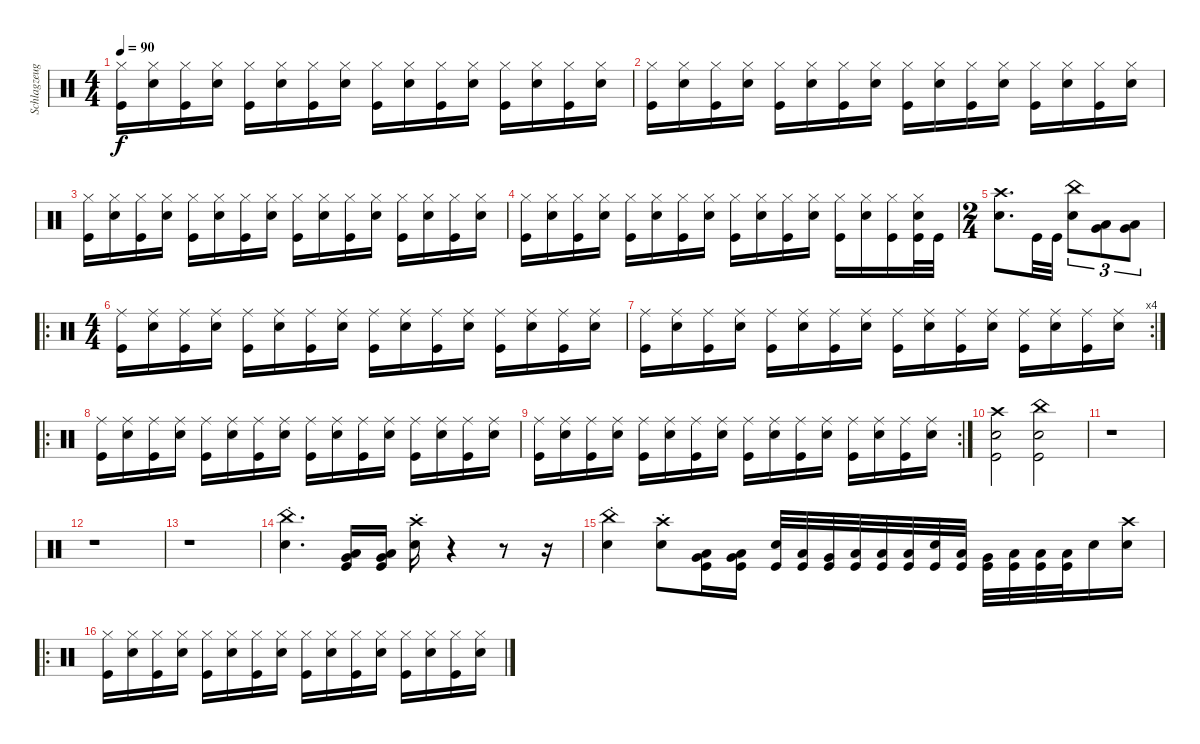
\track ("Schlagzeug" "Schlagzeug") {instrument percussion}
\staff {score}
\articulation defaults
\ts (4 4)
\tempo 90
\clef neutral
\ks c
("Hi-Hat (closed)" "Kick (hit)").16{dy f} ("Hi-Hat (closed)" "Snare (hit) 2").16 ("Hi-Hat (closed)" "Kick (hit)").16 ("Hi-Hat (closed)" "Snare (hit) 2").16 ("Hi-Hat (closed)" "Kick (hit)").16 ("Hi-Hat (closed)" "Snare (hit) 2").16 ("Hi-Hat (closed)" "Kick (hit)").16 ("Hi-Hat (closed)" "Snare (hit) 2").16 ("Hi-Hat (closed)" "Kick (hit)").16 ("Hi-Hat (closed)" "Snare (hit) 2").16 ("Hi-Hat (closed)" "Kick (hit)").16 ("Hi-Hat (closed)" "Snare (hit) 2").16 ("Hi-Hat (closed)" "Kick (hit)").16 ("Hi-Hat (closed)" "Snare (hit) 2").16 ("Hi-Hat (closed)" "Kick (hit)").16 ("Hi-Hat (closed)" "Snare (hit) 2").16 |
("Hi-Hat (closed)" "Kick (hit)").16 ("Hi-Hat (closed)" "Snare (hit) 2").16 ("Hi-Hat (closed)" "Kick (hit)").16 ("Hi-Hat (closed)" "Snare (hit) 2").16 ("Hi-Hat (closed)" "Kick (hit)").16 ("Hi-Hat (closed)" "Snare (hit) 2").16 ("Hi-Hat (closed)" "Kick (hit)").16 ("Hi-Hat (closed)" "Snare (hit) 2").16 ("Hi-Hat (closed)" "Kick (hit)").16 ("Hi-Hat (closed)" "Snare (hit) 2").16 ("Hi-Hat (closed)" "Kick (hit)").16 ("Hi-Hat (closed)" "Snare (hit) 2").16 ("Hi-Hat (closed)" "Kick (hit)").16 ("Hi-Hat (closed)" "Snare (hit) 2").16 ("Hi-Hat (closed)" "Kick (hit)").16 ("Hi-Hat (closed)" "Snare (hit) 2").16 |
("Hi-Hat (closed)" "Kick (hit)").16 ("Hi-Hat (closed)" "Snare (hit) 2").16 ("Hi-Hat (closed)" "Kick (hit)").16 ("Hi-Hat (closed)" "Snare (hit) 2").16 ("Hi-Hat (closed)" "Kick (hit)").16 ("Hi-Hat (closed)" "Snare (hit) 2").16 ("Hi-Hat (closed)" "Kick (hit)").16 ("Hi-Hat (closed)" "Snare (hit) 2").16 ("Hi-Hat (closed)" "Kick (hit)").16 ("Hi-Hat (closed)" "Snare (hit) 2").16 ("Hi-Hat (closed)" "Kick (hit)").16 ("Hi-Hat (closed)" "Snare (hit) 2").16 ("Hi-Hat (closed)" "Kick (hit)").16 ("Hi-Hat (closed)" "Snare (hit) 2").16 ("Hi-Hat (closed)" "Kick (hit)").16 ("Hi-Hat (closed)" "Snare (hit) 2").16 |
("Hi-Hat (closed)" "Kick (hit)").16 ("Hi-Hat (closed)" "Snare (hit) 2").16 ("Hi-Hat (closed)" "Kick (hit)").16 ("Hi-Hat (closed)" "Snare (hit) 2").16 ("Hi-Hat (closed)" "Kick (hit)").16 ("Hi-Hat (closed)" "Snare (hit) 2").16 ("Hi-Hat (closed)" "Kick (hit)").16 ("Hi-Hat (closed)" "Snare (hit) 2").16 ("Hi-Hat (closed)" "Kick (hit)").16 ("Hi-Hat (closed)" "Snare (hit) 2").16 ("Hi-Hat (closed)" "Kick (hit)").16 ("Hi-Hat (closed)" "Snare (hit) 2").16 ("Hi-Hat (closed)" "Kick (hit)").16 ("Hi-Hat (closed)" "Snare (hit) 2").16 ("Hi-Hat (closed)" "Kick (hit)").16 ("Hi-Hat (closed)" "Snare (hit) 2" "Kick (hit)").32 "Kick (hit)".32 |
\ts (2 4)
("Crash high (hit)" "Snare (hit) 2").8{d} "Kick (hit)".32 "Kick (hit)".32 ("China (hit)" "Snare (hit) 2").8{tu (3 2)} ("Very Low Tom (hit)" "Low Tom (hit)").8{tu (3 2)} ("Very Low Tom (hit)" "Low Tom (hit)").8{tu (3 2)} |
\ro
\ts (4 4)
("Ride (middle)" "Kick (hit)").16 ("Ride (middle)" "Snare (hit) 2").16 ("Ride (middle)" "Kick (hit)").16 ("Ride (middle)" "Snare (hit) 2").16 ("Ride (middle)" "Kick (hit)").16 ("Ride (middle)" "Snare (hit) 2").16 ("Ride (middle)" "Kick (hit)").16 ("Ride (middle)" "Snare (hit) 2").16 ("Ride (middle)" "Kick (hit)").16 ("Ride (middle)" "Snare (hit) 2").16 ("Ride (middle)" "Kick (hit)").16 ("Ride (middle)" "Snare (hit) 2").16 ("Ride (middle)" "Kick (hit)").16 ("Ride (middle)" "Snare (hit) 2").16 ("Ride (middle)" "Kick (hit)").16 ("Ride (middle)" "Snare (hit) 2").16 |
\rc 4
("Ride (middle)" "Kick (hit)").16 ("Ride (middle)" "Snare (hit) 2").16 ("Ride (middle)" "Kick (hit)").16 ("Ride (middle)" "Snare (hit) 2").16 ("Ride (middle)" "Kick (hit)").16 ("Ride (middle)" "Snare (hit) 2").16 ("Ride (middle)" "Kick (hit)").16 ("Ride (middle)" "Snare (hit) 2").16 ("Ride (middle)" "Kick (hit)").16 ("Ride (middle)" "Snare (hit) 2").16 ("Ride (middle)" "Kick (hit)").16 ("Ride (middle)" "Snare (hit) 2").16 ("Ride (middle)" "Kick (hit)").16 ("Ride (middle)" "Snare (hit) 2").16 ("Ride (middle)" "Kick (hit)").16 ("Ride (middle)" "Snare (hit) 2").16 |
\ro
("Ride (middle)" "Kick (hit)").16 ("Ride (middle)" "Snare (hit) 2").16 ("Ride (middle)" "Kick (hit)").16 ("Ride (middle)" "Snare (hit) 2").16 ("Ride (middle)" "Kick (hit)").16 ("Ride (middle)" "Snare (hit) 2").16 ("Ride (middle)" "Kick (hit)").16 ("Ride (middle)" "Snare (hit) 2").16 ("Ride (middle)" "Kick (hit)").16 ("Ride (middle)" "Snare (hit) 2").16 ("Ride (middle)" "Kick (hit)").16 ("Ride (middle)" "Snare (hit) 2").16 ("Ride (middle)" "Kick (hit)").16 ("Ride (middle)" "Snare (hit) 2").16 ("Ride (middle)" "Kick (hit)").16 ("Ride (middle)" "Snare (hit) 2").16 |
\rc 2
("Ride (middle)" "Kick (hit)").16 ("Ride (middle)" "Snare (hit) 2").16 ("Ride (middle)" "Kick (hit)").16 ("Ride (middle)" "Snare (hit) 2").16 ("Ride (middle)" "Kick (hit)").16 ("Ride (middle)" "Snare (hit) 2").16 ("Ride (middle)" "Kick (hit)").16 ("Ride (middle)" "Snare (hit) 2").16 ("Ride (middle)" "Kick (hit)").16 ("Ride (middle)" "Snare (hit) 2").16 ("Ride (middle)" "Kick (hit)").16 ("Ride (middle)" "Snare (hit) 2").16 ("Ride (middle)" "Kick (hit)").16 ("Ride (middle)" "Snare (hit) 2").16 ("Ride (middle)" "Kick (hit)").16 ("Ride (middle)" "Snare (hit) 2").16 |
("Crash high (hit)" "Snare (hit) 2" "Kick (hit)").2 ("China (hit)" "Snare (hit) 2" "Kick (hit)").2 |
r.1 |
r.1 |
r.1 |
("China (hit)"{st} "Snare (hit) 2").4{d} ("Low Tom (hit)" "Very Low Tom (hit)" "Kick (hit)").16 ("Low Tom (hit)" "Very Low Tom (hit)" "Kick (hit)").16 ("Crash high (hit)"{st} "Snare (hit) 2").16 r.4 r.8 r.16 |
("China (hit)"{st} "Snare (hit) 2").4 ("Crash high (hit)"{st} "Snare (hit) 2").8 ("Low Tom (hit)" "Very Low Tom (hit)" "Kick (hit)").16 ("Low Tom (hit)" "Very Low Tom (hit)" "Kick (hit)").16 ("Snare (hit) 2" "Kick (hit)").32 ("Low Tom (hit)" "Kick (hit)").32 ("Very Low Tom (hit)" "Kick (hit)").32 ("Low Floor Tom (hit)" "Kick (hit)").32 ("Low Floor Tom (hit)" "Kick (hit)").32 ("Low Floor Tom (hit)" "Kick (hit)").32 ("Snare (hit) 2" "Kick (hit)").32 ("Low Tom (hit)" "Kick (hit)").32 ("Very Low Tom (hit)" "Kick (hit)").32 ("Low Floor Tom (hit)" "Kick (hit)").32 ("Low Floor Tom (hit)" "Kick (hit)").32 ("Low Floor Tom (hit)" "Kick (hit)").32 "Snare (hit) 2".16 ("Crash high (hit)" "Snare (hit) 2").16 |
\ro
("Hi-Hat (closed)" "Kick (hit)").16 ("Hi-Hat (closed)" "Snare (hit) 2").16 ("Hi-Hat (closed)" "Kick (hit)").16 ("Hi-Hat (closed)" "Snare (hit) 2").16 ("Hi-Hat (closed)" "Kick (hit)").16 ("Hi-Hat (closed)" "Snare (hit) 2").16 ("Hi-Hat (closed)" "Kick (hit)").16 ("Hi-Hat (closed)" "Snare (hit) 2").16 ("Hi-Hat (closed)" "Kick (hit)").16 ("Hi-Hat (closed)" "Snare (hit) 2").16 ("Hi-Hat (closed)" "Kick (hit)").16 ("Hi-Hat (closed)" "Snare (hit) 2").16 ("Hi-Hat (closed)" "Kick (hit)").16 ("Hi-Hat (closed)" "Snare (hit) 2").16 ("Hi-Hat (closed)" "Kick (hit)").16 ("Hi-Hat (closed)" "Snare (hit) 2").16
